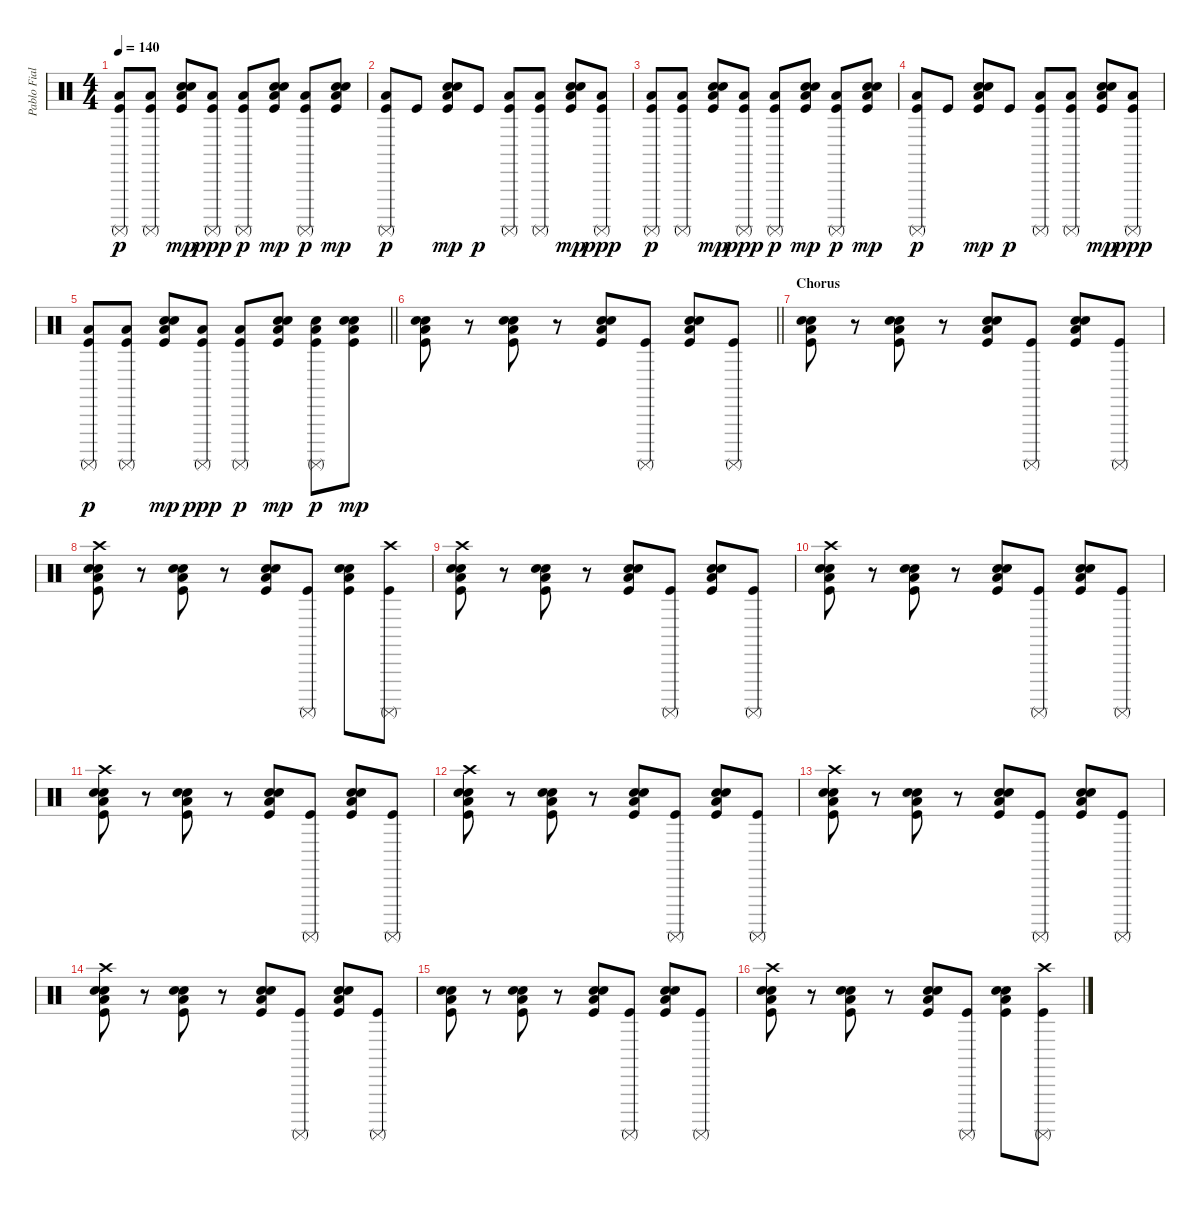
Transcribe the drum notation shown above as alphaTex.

\track ("Pablo Fiallo" "Pablo Fial") {instrument percussion}
\staff {score}
\articulation defaults
\ts (4 4)
\tempo 140
\clef neutral
\ks c
("Low Floor Tom (hit)" "Kick (hit)" "Surdo (mute)").8{dy p} ("Low Floor Tom (hit)" "Kick (hit)" "Surdo (mute)").8 ("Low Floor Tom (hit)" "Electric Snare (hit)" "Kick (hit)" "Snare (hit) 2").8{dy mp} ("Low Floor Tom (hit)" "Kick (hit)" "Surdo (mute)").8{dy ppp} ("Low Floor Tom (hit)" "Kick (hit)" "Surdo (mute)").8{dy p} ("Low Floor Tom (hit)" "Electric Snare (hit)" "Kick (hit)" "Snare (hit) 2").8{dy mp} ("Low Floor Tom (hit)" "Kick (hit)" "Surdo (mute)").8{dy p} ("Low Floor Tom (hit)" "Electric Snare (hit)" "Kick (hit)" "Snare (hit) 2").8{dy mp} |
("Low Floor Tom (hit)" "Kick (hit)" "Surdo (mute)").8{dy p} "Kick (hit)".8 ("Low Floor Tom (hit)" "Electric Snare (hit)" "Kick (hit)" "Snare (hit) 2").8{dy mp} "Kick (hit)".8{dy p} ("Low Floor Tom (hit)" "Kick (hit)" "Surdo (mute)").8 ("Low Floor Tom (hit)" "Kick (hit)" "Surdo (mute)").8 ("Low Floor Tom (hit)" "Electric Snare (hit)" "Kick (hit)" "Snare (hit) 2").8{dy mp} ("Low Floor Tom (hit)" "Kick (hit)" "Surdo (mute)").8{dy ppp} |
("Low Floor Tom (hit)" "Kick (hit)" "Surdo (mute)").8{dy p} ("Low Floor Tom (hit)" "Kick (hit)" "Surdo (mute)").8 ("Low Floor Tom (hit)" "Electric Snare (hit)" "Kick (hit)" "Snare (hit) 2").8{dy mp} ("Low Floor Tom (hit)" "Kick (hit)" "Surdo (mute)").8{dy ppp} ("Low Floor Tom (hit)" "Kick (hit)" "Surdo (mute)").8{dy p} ("Low Floor Tom (hit)" "Electric Snare (hit)" "Kick (hit)" "Snare (hit) 2").8{dy mp} ("Low Floor Tom (hit)" "Kick (hit)" "Surdo (mute)").8{dy p} ("Low Floor Tom (hit)" "Electric Snare (hit)" "Kick (hit)" "Snare (hit) 2").8{dy mp} |
("Low Floor Tom (hit)" "Kick (hit)" "Surdo (mute)").8{dy p} "Kick (hit)".8 ("Low Floor Tom (hit)" "Electric Snare (hit)" "Kick (hit)" "Snare (hit) 2").8{dy mp} "Kick (hit)".8{dy p} ("Low Floor Tom (hit)" "Kick (hit)" "Surdo (mute)").8 ("Low Floor Tom (hit)" "Kick (hit)" "Surdo (mute)").8 ("Low Floor Tom (hit)" "Electric Snare (hit)" "Kick (hit)" "Snare (hit) 2").8{dy mp} ("Low Floor Tom (hit)" "Kick (hit)" "Surdo (mute)").8{dy ppp} |
\barLineRight lightlight
("Low Floor Tom (hit)" "Kick (hit)" "Surdo (mute)").8{dy p} ("Low Floor Tom (hit)" "Kick (hit)" "Surdo (mute)").8 ("Low Floor Tom (hit)" "Electric Snare (hit)" "Kick (hit)" "Snare (hit) 2").8{dy mp} ("Low Floor Tom (hit)" "Kick (hit)" "Surdo (mute)").8{dy ppp} ("Low Floor Tom (hit)" "Kick (hit)" "Surdo (mute)").8{dy p} ("Low Floor Tom (hit)" "Electric Snare (hit)" "Kick (hit)" "Snare (hit) 2").8{dy mp} ("Low Floor Tom (hit)" "Electric Snare (hit)" "Kick (hit)" "Surdo (mute)").8{dy p} ("Low Floor Tom (hit)" "Electric Snare (hit)" "Kick (hit)" "Snare (hit) 2").8{dy mp} |
\barLineRight lightlight
("Low Floor Tom (hit)" "Electric Snare (hit)" "Kick (hit)" "Snare (hit) 2").8 r.8 ("Low Floor Tom (hit)" "Electric Snare (hit)" "Kick (hit)" "Snare (hit) 2").8 r.8 ("Low Floor Tom (hit)" "Electric Snare (hit)" "Kick (hit)" "Snare (hit) 2").8 ("Kick (hit)" "Surdo (mute)").8 ("Low Floor Tom (hit)" "Electric Snare (hit)" "Kick (hit)" "Snare (hit) 2").8 ("Kick (hit)" "Surdo (mute)").8 |
\section ("" "Chorus")
("Low Floor Tom (hit)" "Electric Snare (hit)" "Kick (hit)" "Snare (hit) 2").8 r.8 ("Low Floor Tom (hit)" "Electric Snare (hit)" "Kick (hit)" "Snare (hit) 2").8 r.8 ("Low Floor Tom (hit)" "Electric Snare (hit)" "Kick (hit)" "Snare (hit) 2").8 ("Kick (hit)" "Surdo (mute)").8 ("Low Floor Tom (hit)" "Electric Snare (hit)" "Kick (hit)" "Snare (hit) 2").8 ("Kick (hit)" "Surdo (mute)").8 |
("Low Floor Tom (hit)" "Electric Snare (hit)" "Crash high (hit)" "Kick (hit)" "Snare (hit) 2").8 r.8 ("Low Floor Tom (hit)" "Electric Snare (hit)" "Kick (hit)" "Snare (hit) 2").8 r.8 ("Low Floor Tom (hit)" "Electric Snare (hit)" "Kick (hit)" "Snare (hit) 2").8 ("Kick (hit)" "Surdo (mute)").8 ("Low Floor Tom (hit)" "Electric Snare (hit)" "Kick (hit)" "Snare (hit) 2").8 ("Crash high (hit)" "Kick (hit)" "Surdo (mute)").8 |
("Low Floor Tom (hit)" "Electric Snare (hit)" "Crash high (hit)" "Kick (hit)" "Snare (hit) 2").8 r.8 ("Low Floor Tom (hit)" "Electric Snare (hit)" "Kick (hit)" "Snare (hit) 2").8 r.8 ("Low Floor Tom (hit)" "Electric Snare (hit)" "Kick (hit)" "Snare (hit) 2").8 ("Kick (hit)" "Surdo (mute)").8 ("Low Floor Tom (hit)" "Electric Snare (hit)" "Kick (hit)" "Snare (hit) 2").8 ("Kick (hit)" "Surdo (mute)").8 |
("Low Floor Tom (hit)" "Electric Snare (hit)" "Crash high (hit)" "Kick (hit)" "Snare (hit) 2").8 r.8 ("Low Floor Tom (hit)" "Electric Snare (hit)" "Kick (hit)" "Snare (hit) 2").8 r.8 ("Low Floor Tom (hit)" "Electric Snare (hit)" "Kick (hit)" "Snare (hit) 2").8 ("Kick (hit)" "Surdo (mute)").8 ("Low Floor Tom (hit)" "Electric Snare (hit)" "Kick (hit)" "Snare (hit) 2").8 ("Kick (hit)" "Surdo (mute)").8 |
("Low Floor Tom (hit)" "Electric Snare (hit)" "Crash high (hit)" "Kick (hit)" "Snare (hit) 2").8 r.8 ("Low Floor Tom (hit)" "Electric Snare (hit)" "Kick (hit)" "Snare (hit) 2").8 r.8 ("Low Floor Tom (hit)" "Electric Snare (hit)" "Kick (hit)" "Snare (hit) 2").8 ("Kick (hit)" "Surdo (mute)").8 ("Low Floor Tom (hit)" "Electric Snare (hit)" "Kick (hit)" "Snare (hit) 2").8 ("Kick (hit)" "Surdo (mute)").8 |
("Low Floor Tom (hit)" "Electric Snare (hit)" "Crash high (hit)" "Kick (hit)" "Snare (hit) 2").8 r.8 ("Low Floor Tom (hit)" "Electric Snare (hit)" "Kick (hit)" "Snare (hit) 2").8 r.8 ("Low Floor Tom (hit)" "Electric Snare (hit)" "Kick (hit)" "Snare (hit) 2").8 ("Kick (hit)" "Surdo (mute)").8 ("Low Floor Tom (hit)" "Electric Snare (hit)" "Kick (hit)" "Snare (hit) 2").8 ("Kick (hit)" "Surdo (mute)").8 |
("Low Floor Tom (hit)" "Electric Snare (hit)" "Crash high (hit)" "Kick (hit)" "Snare (hit) 2").8 r.8 ("Low Floor Tom (hit)" "Electric Snare (hit)" "Kick (hit)" "Snare (hit) 2").8 r.8 ("Low Floor Tom (hit)" "Electric Snare (hit)" "Kick (hit)" "Snare (hit) 2").8 ("Kick (hit)" "Surdo (mute)").8 ("Low Floor Tom (hit)" "Electric Snare (hit)" "Kick (hit)" "Snare (hit) 2").8 ("Kick (hit)" "Surdo (mute)").8 |
("Low Floor Tom (hit)" "Electric Snare (hit)" "Crash high (hit)" "Kick (hit)" "Snare (hit) 2").8 r.8 ("Low Floor Tom (hit)" "Electric Snare (hit)" "Kick (hit)" "Snare (hit) 2").8 r.8 ("Low Floor Tom (hit)" "Electric Snare (hit)" "Kick (hit)" "Snare (hit) 2").8 ("Kick (hit)" "Surdo (mute)").8 ("Low Floor Tom (hit)" "Electric Snare (hit)" "Kick (hit)" "Snare (hit) 2").8 ("Kick (hit)" "Surdo (mute)").8 |
("Low Floor Tom (hit)" "Electric Snare (hit)" "Kick (hit)" "Snare (hit) 2").8 r.8 ("Low Floor Tom (hit)" "Electric Snare (hit)" "Kick (hit)" "Snare (hit) 2").8 r.8 ("Low Floor Tom (hit)" "Electric Snare (hit)" "Kick (hit)" "Snare (hit) 2").8 ("Kick (hit)" "Surdo (mute)").8 ("Low Floor Tom (hit)" "Electric Snare (hit)" "Kick (hit)" "Snare (hit) 2").8 ("Kick (hit)" "Surdo (mute)").8 |
("Low Floor Tom (hit)" "Electric Snare (hit)" "Crash high (hit)" "Kick (hit)" "Snare (hit) 2").8 r.8 ("Low Floor Tom (hit)" "Electric Snare (hit)" "Kick (hit)" "Snare (hit) 2").8 r.8 ("Low Floor Tom (hit)" "Electric Snare (hit)" "Kick (hit)" "Snare (hit) 2").8 ("Kick (hit)" "Surdo (mute)").8 ("Low Floor Tom (hit)" "Electric Snare (hit)" "Kick (hit)" "Snare (hit) 2").8 ("Crash high (hit)" "Kick (hit)" "Surdo (mute)").8
